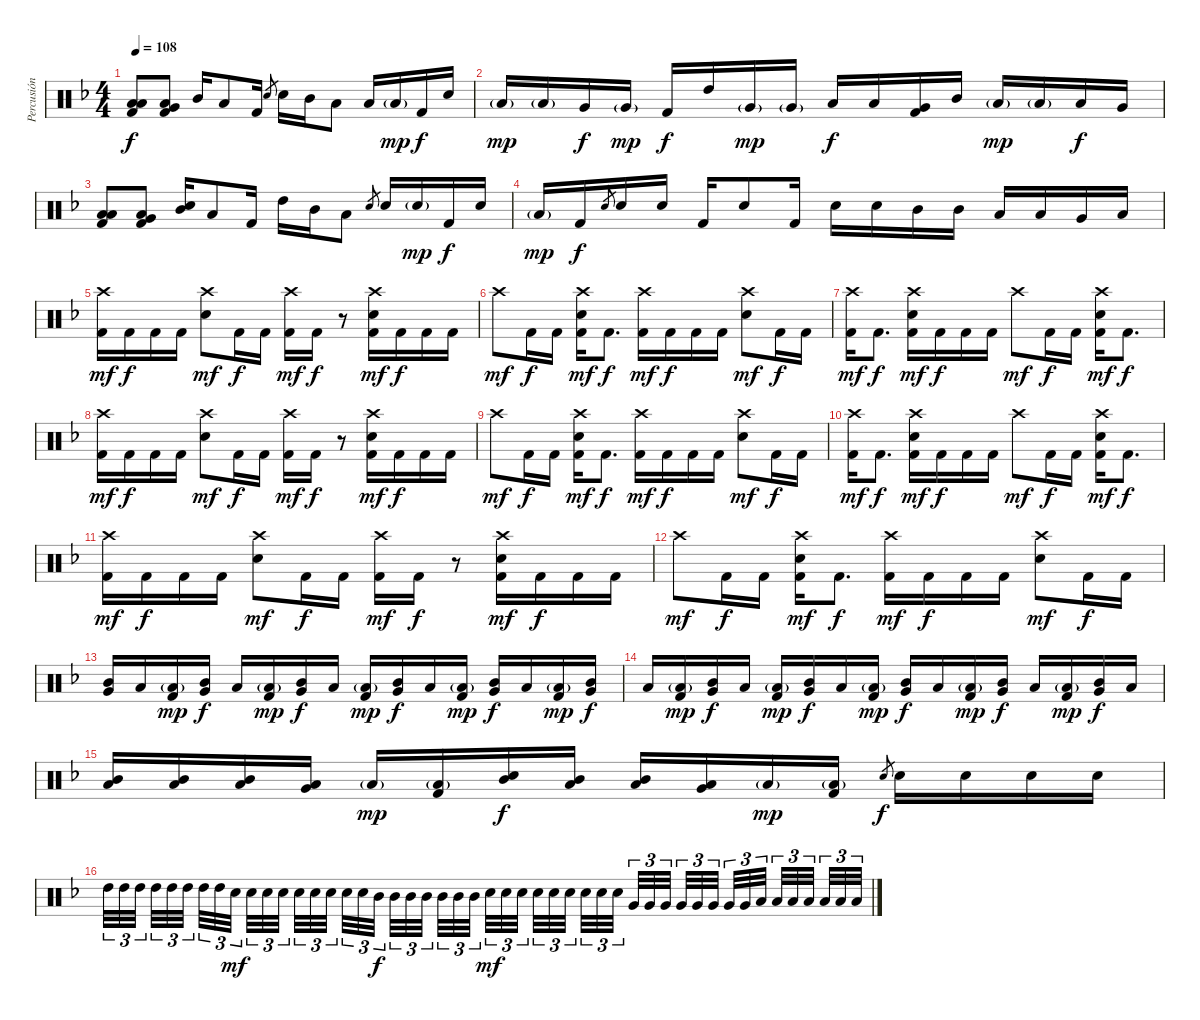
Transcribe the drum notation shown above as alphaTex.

\track ("Percusión" "Percusión") {instrument percussion}
\staff {score}
\articulation defaults
\ts (4 4)
\tempo 108
\clef neutral
\ks f
("Low Tom (hit)" "Low Floor Tom (hit)" "Kick (hit) 2").8{dy f} ("Very Low Tom (hit)" "Low Floor Tom (hit)" "Kick (hit) 2").8 "Mid Tom (hit)".16 "Low Tom (hit)".8 "Kick (hit) 2".16 "Snare (hit) 2".8{gr} "Snare (hit) 2".16 "Mid Tom (hit)".16 "Low Tom (hit)".8 "Low Tom (hit)".16 "Low Tom (hit)"{g}.16{dy mp} "Kick (hit) 2".16{dy f} "Snare (hit) 2".16 |
"Low Floor Tom (hit)"{g}.16{dy mp} "Low Floor Tom (hit)"{g}.16 "Very Low Tom (hit)".16{dy f} "Very Low Tom (hit)"{g}.16{dy mp} "Kick (hit) 2".16{dy f} "High Tom (hit)".16 "Very Low Tom (hit)"{g}.16{dy mp} "Very Low Tom (hit)"{g}.16 "Low Tom (hit)".16{dy f} "Low Tom (hit)".16 ("Very Low Tom (hit)" "Kick (hit) 2").16 "Mid Tom (hit)".16 "Low Floor Tom (hit)"{g}.16{dy mp} "Low Floor Tom (hit)"{g}.16 "Low Tom (hit)".16{dy f} "Very Low Tom (hit)".16 |
("Low Tom (hit)" "Low Floor Tom (hit)" "Kick (hit) 2").8 ("Very Low Tom (hit)" "Low Floor Tom (hit)" "Kick (hit) 2").8 ("Mid Tom (hit)" "Snare (hit) 2").16 "Low Tom (hit)".8 "Kick (hit) 2".16 "High Tom (hit)".16 "Mid Tom (hit)".16 "Low Tom (hit)".8 "Snare (hit) 2".8{gr} "Snare (hit) 2".16 "Snare (hit) 2"{g}.16{dy mp} "Kick (hit) 2".16{dy f} "Snare (hit) 2".16 |
"Low Floor Tom (hit)"{g}.16{dy mp} "Kick (hit) 2".16{dy f} "Snare (hit) 2".8{gr} "Snare (hit) 2".16 "Snare (hit) 2".16 "Kick (hit) 2".16 "Snare (hit) 2".8 "Kick (hit) 2".16 "Snare (hit) 2".16 "Snare (hit) 2".16 "Mid Tom (hit)".16 "Mid Tom (hit)".16 "Low Tom (hit)".16 "Low Tom (hit)".16 "Very Low Tom (hit)".16 "Low Floor Tom (hit)".16 |
("Crash high (hit)" "Kick (hit) 2").16{dy mf} "Kick (hit) 2".16{dy f} "Kick (hit) 2".16 "Kick (hit) 2".16 ("Crash high (hit)" "Snare (hit) 2").8{dy mf} "Kick (hit) 2".16{dy f} "Kick (hit) 2".16 ("Crash high (hit)" "Kick (hit) 2").16{dy mf} "Kick (hit) 2".16{dy f} r.8 ("Crash high (hit)" "Snare (hit) 2" "Kick (hit) 2").16{dy mf} "Kick (hit) 2".16{dy f} "Kick (hit) 2".16 "Kick (hit) 2".16 |
"Crash high (hit)".8{dy mf} "Kick (hit) 2".16{dy f} "Kick (hit) 2".16 ("Crash high (hit)" "Snare (hit) 2" "Kick (hit) 2").16{dy mf} "Kick (hit) 2".8{d dy f} ("Crash high (hit)" "Kick (hit) 2").16{dy mf} "Kick (hit) 2".16{dy f} "Kick (hit) 2".16 "Kick (hit) 2".16 ("Crash high (hit)" "Snare (hit) 2").8{dy mf} "Kick (hit) 2".16{dy f} "Kick (hit) 2".16 |
("Crash high (hit)" "Kick (hit) 2").16{dy mf} "Kick (hit) 2".8{d dy f} ("Crash high (hit)" "Snare (hit) 2" "Kick (hit) 2").16{dy mf} "Kick (hit) 2".16{dy f} "Kick (hit) 2".16 "Kick (hit) 2".16 "Crash high (hit)".8{dy mf} "Kick (hit) 2".16{dy f} "Kick (hit) 2".16 ("Crash high (hit)" "Snare (hit) 2" "Kick (hit) 2").16{dy mf} "Kick (hit) 2".8{d dy f} |
("Crash high (hit)" "Kick (hit) 2").16{dy mf} "Kick (hit) 2".16{dy f} "Kick (hit) 2".16 "Kick (hit) 2".16 ("Crash high (hit)" "Snare (hit) 2").8{dy mf} "Kick (hit) 2".16{dy f} "Kick (hit) 2".16 ("Crash high (hit)" "Kick (hit) 2").16{dy mf} "Kick (hit) 2".16{dy f} r.8 ("Crash high (hit)" "Snare (hit) 2" "Kick (hit) 2").16{dy mf} "Kick (hit) 2".16{dy f} "Kick (hit) 2".16 "Kick (hit) 2".16 |
"Crash high (hit)".8{dy mf} "Kick (hit) 2".16{dy f} "Kick (hit) 2".16 ("Crash high (hit)" "Snare (hit) 2" "Kick (hit) 2").16{dy mf} "Kick (hit) 2".8{d dy f} ("Crash high (hit)" "Kick (hit) 2").16{dy mf} "Kick (hit) 2".16{dy f} "Kick (hit) 2".16 "Kick (hit) 2".16 ("Crash high (hit)" "Snare (hit) 2").8{dy mf} "Kick (hit) 2".16{dy f} "Kick (hit) 2".16 |
("Crash high (hit)" "Kick (hit) 2").16{dy mf} "Kick (hit) 2".8{d dy f} ("Crash high (hit)" "Snare (hit) 2" "Kick (hit) 2").16{dy mf} "Kick (hit) 2".16{dy f} "Kick (hit) 2".16 "Kick (hit) 2".16 "Crash high (hit)".8{dy mf} "Kick (hit) 2".16{dy f} "Kick (hit) 2".16 ("Crash high (hit)" "Snare (hit) 2" "Kick (hit) 2").16{dy mf} "Kick (hit) 2".8{d dy f} |
("Crash high (hit)" "Kick (hit) 2").16{dy mf} "Kick (hit) 2".16{dy f} "Kick (hit) 2".16 "Kick (hit) 2".16 ("Crash high (hit)" "Snare (hit) 2").8{dy mf} "Kick (hit) 2".16{dy f} "Kick (hit) 2".16 ("Crash high (hit)" "Kick (hit) 2").16{dy mf} "Kick (hit) 2".16{dy f} r.8 ("Crash high (hit)" "Snare (hit) 2" "Kick (hit) 2").16{dy mf} "Kick (hit) 2".16{dy f} "Kick (hit) 2".16 "Kick (hit) 2".16 |
"Crash high (hit)".8{dy mf} "Kick (hit) 2".16{dy f} "Kick (hit) 2".16 ("Crash high (hit)" "Snare (hit) 2" "Kick (hit) 2").16{dy mf} "Kick (hit) 2".8{d dy f} ("Crash high (hit)" "Kick (hit) 2").16{dy mf} "Kick (hit) 2".16{dy f} "Kick (hit) 2".16 "Kick (hit) 2".16 ("Crash high (hit)" "Snare (hit) 2").8{dy mf} "Kick (hit) 2".16{dy f} "Kick (hit) 2".16 |
("Mid Tom (hit)" "Very Low Tom (hit)").16 "Low Floor Tom (hit)".16 ("Low Floor Tom (hit)"{g} "Kick (hit) 2").16{dy mp} ("Mid Tom (hit)" "Very Low Tom (hit)").16{dy f} "Low Floor Tom (hit)".16 ("Low Floor Tom (hit)"{g} "Kick (hit) 2").16{dy mp} ("Mid Tom (hit)" "Very Low Tom (hit)").16{dy f} "Low Floor Tom (hit)".16 ("Low Floor Tom (hit)"{g} "Kick (hit) 2").16{dy mp} ("Mid Tom (hit)" "Very Low Tom (hit)").16{dy f} "Low Floor Tom (hit)".16 ("Low Floor Tom (hit)"{g} "Kick (hit) 2").16{dy mp} ("Mid Tom (hit)" "Very Low Tom (hit)").16{dy f} "Low Floor Tom (hit)".16 ("Low Floor Tom (hit)"{g} "Kick (hit) 2").16{dy mp} ("Mid Tom (hit)" "Very Low Tom (hit)").16{dy f} |
"Low Floor Tom (hit)".16 ("Low Floor Tom (hit)"{g} "Kick (hit) 2").16{dy mp} ("Mid Tom (hit)" "Very Low Tom (hit)").16{dy f} "Low Floor Tom (hit)".16 ("Low Floor Tom (hit)"{g} "Kick (hit) 2").16{dy mp} ("Mid Tom (hit)" "Very Low Tom (hit)").16{dy f} "Low Floor Tom (hit)".16 ("Low Floor Tom (hit)"{g} "Kick (hit) 2").16{dy mp} ("Mid Tom (hit)" "Very Low Tom (hit)").16{dy f} "Low Floor Tom (hit)".16 ("Low Floor Tom (hit)"{g} "Kick (hit) 2").16{dy mp} ("Mid Tom (hit)" "Very Low Tom (hit)").16{dy f} "Low Floor Tom (hit)".16 ("Low Floor Tom (hit)"{g} "Kick (hit) 2").16{dy mp} ("Mid Tom (hit)" "Very Low Tom (hit)").16{dy f} "Low Floor Tom (hit)".16 |
("Mid Tom (hit)" "Low Tom (hit)").16 ("Mid Tom (hit)" "Low Tom (hit)").16 ("Mid Tom (hit)" "Low Tom (hit)").16 ("Low Tom (hit)" "Very Low Tom (hit)").16 "Low Floor Tom (hit)"{g}.16{dy mp} ("Low Floor Tom (hit)"{g} "Kick (hit) 2").16 ("Mid Tom (hit)" "Snare (hit)").16{dy f} ("Mid Tom (hit)" "Low Tom (hit)").16 ("Mid Tom (hit)" "Low Tom (hit)").16 ("Low Tom (hit)" "Very Low Tom (hit)").16 "Low Floor Tom (hit)"{g}.16{dy mp} ("Low Floor Tom (hit)"{g} "Kick (hit) 2").16 "Snare (hit) 2".8{gr dy f} "Snare (hit) 2".16 "Snare (hit) 2".16 "Snare (hit) 2".16 "Snare (hit) 2".16 |
"High Tom (hit)".32{tu (3 2)} "High Tom (hit)".32{tu (3 2)} "High Tom (hit)".32{tu (3 2) beam splitsecondary} "High Tom (hit)".32{tu (3 2)} "High Tom (hit)".32{tu (3 2)} "High Tom (hit)".32{tu (3 2) beam splitsecondary} "High Tom (hit)".32{tu (3 2)} "High Tom (hit)".32{tu (3 2)} "Snare (hit) 2".32{tu (3 2) dy mf beam splitsecondary} "Snare (hit) 2".32{tu (3 2)} "Snare (hit) 2".32{tu (3 2)} "Snare (hit) 2".32{tu (3 2)} "Snare (hit) 2".32{tu (3 2)} "Snare (hit) 2".32{tu (3 2)} "Snare (hit) 2".32{tu (3 2) beam splitsecondary} "Snare (hit) 2".32{tu (3 2)} "Snare (hit) 2".32{tu (3 2)} "Mid Tom (hit)".32{tu (3 2) dy f beam splitsecondary} "Mid Tom (hit)".32{tu (3 2)} "Mid Tom (hit)".32{tu (3 2)} "Mid Tom (hit)".32{tu (3 2) beam splitsecondary} "Mid Tom (hit)".32{tu (3 2)} "Mid Tom (hit)".32{tu (3 2)} "Mid Tom (hit)".32{tu (3 2)} "Snare (hit) 2".32{tu (3 2) dy mf} "Snare (hit) 2".32{tu (3 2)} "Snare (hit) 2".32{tu (3 2) beam splitsecondary} "Snare (hit) 2".32{tu (3 2)} "Snare (hit) 2".32{tu (3 2)} "Snare (hit) 2".32{tu (3 2) beam splitsecondary} "Snare (hit) 2".32{tu (3 2)} "Snare (hit) 2".32{tu (3 2)} "Snare (hit) 2".32{tu (3 2) beam splitsecondary} "Very Low Tom (hit)".32{tu (3 2)} "Very Low Tom (hit)".32{tu (3 2)} "Very Low Tom (hit)".32{tu (3 2)} "Very Low Tom (hit)".32{tu (3 2)} "Very Low Tom (hit)".32{tu (3 2)} "Very Low Tom (hit)".32{tu (3 2) beam splitsecondary} "Very Low Tom (hit)".32{tu (3 2)} "Very Low Tom (hit)".32{tu (3 2)} "Low Floor Tom (hit)".32{tu (3 2) beam splitsecondary} "Low Floor Tom (hit)".32{tu (3 2)} "Low Floor Tom (hit)".32{tu (3 2)} "Low Floor Tom (hit)".32{tu (3 2) beam splitsecondary} "Low Floor Tom (hit)".32{tu (3 2)} "Low Floor Tom (hit)".32{tu (3 2)} "Low Floor Tom (hit)".32{tu (3 2)}
